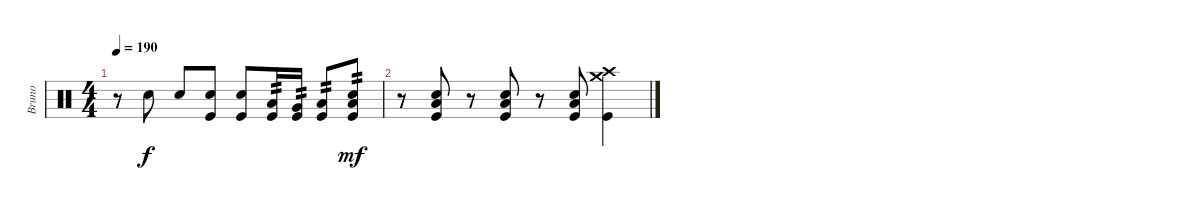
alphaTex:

\track ("Bruno" "Bruno") {instrument percussion}
\staff {score}
\articulation defaults
\ts (4 4)
\tempo 190
\clef neutral
\ks c
r.8{dy f} "Snare (hit) 2".8 "Snare (hit) 2".8 ("Snare (hit) 2" "Kick (hit)").8 ("Snare (hit) 2" "Kick (hit)").8 ("Low Tom (hit)" "Kick (hit)").16{tp 2} ("Very Low Tom (hit)" "Kick (hit)").16{tp 2} ("Low Floor Tom (hit)" "Kick (hit)").8{tp 2} ("Electric Snare (hit)" "Low Floor Tom (hit)" "Kick (hit)").8{tp 2 dy mf} |
r.8 ("Electric Snare (hit)" "Low Floor Tom (hit)" "Kick (hit)").8 r.8 ("Electric Snare (hit)" "Low Floor Tom (hit)" "Kick (hit)").8 r.8 ("Electric Snare (hit)" "Low Floor Tom (hit)" "Kick (hit)").8 ("Crash high (hit)" "Crash medium (hit)" "Kick (hit)").4
